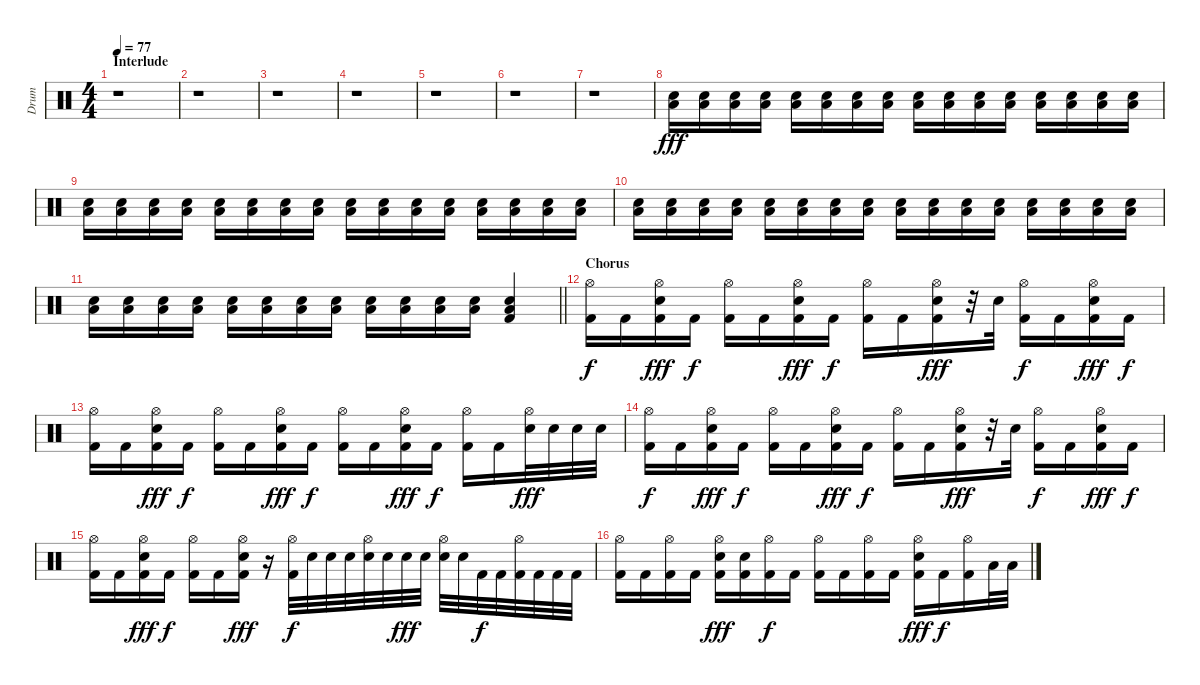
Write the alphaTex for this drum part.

\track ("Drum" "Drum") {instrument percussion}
\staff {score}
\articulation defaults
\ts (4 4)
\section ("" "Interlude")
\tempo 77
\clef neutral
\ks c
r.1{dy f} |
r.1 |
r.1 |
r.1 |
r.1 |
r.1 |
r.1{volume 0} |
("Low Tom (hit)" "Electric Snare (hit)").16{dy fff volume 10} ("Low Tom (hit)" "Electric Snare (hit)").16 ("Low Tom (hit)" "Electric Snare (hit)").16 ("Low Tom (hit)" "Electric Snare (hit)").16 ("Low Tom (hit)" "Electric Snare (hit)").16 ("Low Tom (hit)" "Electric Snare (hit)").16 ("Low Tom (hit)" "Electric Snare (hit)").16 ("Low Tom (hit)" "Electric Snare (hit)").16 ("Low Tom (hit)" "Electric Snare (hit)").16 ("Low Tom (hit)" "Electric Snare (hit)").16 ("Low Tom (hit)" "Electric Snare (hit)").16 ("Low Tom (hit)" "Electric Snare (hit)").16 ("Low Tom (hit)" "Electric Snare (hit)").16 ("Low Tom (hit)" "Electric Snare (hit)").16 ("Low Tom (hit)" "Electric Snare (hit)").16 ("Low Tom (hit)" "Electric Snare (hit)").16 |
("Low Tom (hit)" "Electric Snare (hit)").16 ("Low Tom (hit)" "Electric Snare (hit)").16 ("Low Tom (hit)" "Electric Snare (hit)").16 ("Low Tom (hit)" "Electric Snare (hit)").16 ("Low Tom (hit)" "Electric Snare (hit)").16 ("Low Tom (hit)" "Electric Snare (hit)").16 ("Low Tom (hit)" "Electric Snare (hit)").16 ("Low Tom (hit)" "Electric Snare (hit)").16 ("Low Tom (hit)" "Electric Snare (hit)").16 ("Low Tom (hit)" "Electric Snare (hit)").16 ("Low Tom (hit)" "Electric Snare (hit)").16 ("Low Tom (hit)" "Electric Snare (hit)").16 ("Low Tom (hit)" "Electric Snare (hit)").16 ("Low Tom (hit)" "Electric Snare (hit)").16 ("Low Tom (hit)" "Electric Snare (hit)").16 ("Low Tom (hit)" "Electric Snare (hit)").16 |
("Low Tom (hit)" "Electric Snare (hit)").16 ("Low Tom (hit)" "Electric Snare (hit)").16 ("Low Tom (hit)" "Electric Snare (hit)").16 ("Low Tom (hit)" "Electric Snare (hit)").16 ("Low Tom (hit)" "Electric Snare (hit)").16 ("Low Tom (hit)" "Electric Snare (hit)").16 ("Low Tom (hit)" "Electric Snare (hit)").16 ("Low Tom (hit)" "Electric Snare (hit)").16 ("Low Tom (hit)" "Electric Snare (hit)").16 ("Low Tom (hit)" "Electric Snare (hit)").16 ("Low Tom (hit)" "Electric Snare (hit)").16 ("Low Tom (hit)" "Electric Snare (hit)").16 ("Low Tom (hit)" "Electric Snare (hit)").16 ("Low Tom (hit)" "Electric Snare (hit)").16 ("Low Tom (hit)" "Electric Snare (hit)").16 ("Low Tom (hit)" "Electric Snare (hit)").16 |
\barLineRight lightlight
("Low Tom (hit)" "Electric Snare (hit)").16 ("Low Tom (hit)" "Electric Snare (hit)").16 ("Low Tom (hit)" "Electric Snare (hit)").16 ("Low Tom (hit)" "Electric Snare (hit)").16 ("Low Tom (hit)" "Electric Snare (hit)").16 ("Low Tom (hit)" "Electric Snare (hit)").16 ("Low Tom (hit)" "Electric Snare (hit)").16 ("Low Tom (hit)" "Electric Snare (hit)").16 ("Low Tom (hit)" "Electric Snare (hit)").16 ("Low Tom (hit)" "Electric Snare (hit)").16 ("Low Tom (hit)" "Electric Snare (hit)").16 ("Low Tom (hit)" "Electric Snare (hit)").16 ("Low Tom (hit)" "Electric Snare (hit)" "Kick (hit) 2").4 |
\section ("" "Chorus")
("Hi-Hat (open)" "Kick (hit) 2").16{dy f volume 14} "Kick (hit) 2".16 ("Hi-Hat (open)" "Electric Snare (hit)" "Kick (hit) 2").16{dy fff} "Kick (hit) 2".16{dy f} ("Hi-Hat (open)" "Kick (hit) 2").16 "Kick (hit) 2".16 ("Hi-Hat (open)" "Electric Snare (hit)" "Kick (hit) 2").16{dy fff} "Kick (hit) 2".16{dy f} ("Hi-Hat (open)" "Kick (hit) 2").16 "Kick (hit) 2".16 ("Hi-Hat (open)" "Electric Snare (hit)" "Kick (hit) 2").16{dy fff} r.32 "Electric Snare (hit)".32 ("Hi-Hat (open)" "Kick (hit) 2").16{dy f} "Kick (hit) 2".16 ("Hi-Hat (open)" "Electric Snare (hit)" "Kick (hit) 2").16{dy fff} "Kick (hit) 2".16{dy f} |
("Hi-Hat (open)" "Kick (hit) 2").16 "Kick (hit) 2".16 ("Hi-Hat (open)" "Electric Snare (hit)" "Kick (hit) 2").16{dy fff} "Kick (hit) 2".16{dy f} ("Hi-Hat (open)" "Kick (hit) 2").16 "Kick (hit) 2".16 ("Hi-Hat (open)" "Electric Snare (hit)" "Kick (hit) 2").16{dy fff} "Kick (hit) 2".16{dy f} ("Hi-Hat (open)" "Kick (hit) 2").16 "Kick (hit) 2".16 ("Hi-Hat (open)" "Electric Snare (hit)" "Kick (hit) 2").16{dy fff} "Kick (hit) 2".16{dy f} ("Hi-Hat (open)" "Kick (hit) 2").16 "Kick (hit) 2".16 ("Hi-Hat (open)" "Electric Snare (hit)").32{dy fff} "Electric Snare (hit)".32 "Electric Snare (hit)".32 "Electric Snare (hit)".32 |
("Hi-Hat (open)" "Kick (hit) 2").16{dy f} "Kick (hit) 2".16 ("Hi-Hat (open)" "Electric Snare (hit)" "Kick (hit) 2").16{dy fff} "Kick (hit) 2".16{dy f} ("Hi-Hat (open)" "Kick (hit) 2").16 "Kick (hit) 2".16 ("Hi-Hat (open)" "Electric Snare (hit)" "Kick (hit) 2").16{dy fff} "Kick (hit) 2".16{dy f} ("Hi-Hat (open)" "Kick (hit) 2").16 "Kick (hit) 2".16 ("Hi-Hat (open)" "Electric Snare (hit)" "Kick (hit) 2").16{dy fff} r.32 "Electric Snare (hit)".32 ("Hi-Hat (open)" "Kick (hit) 2").16{dy f} "Kick (hit) 2".16 ("Hi-Hat (open)" "Electric Snare (hit)" "Kick (hit) 2").16{dy fff} "Kick (hit) 2".16{dy f} |
("Hi-Hat (open)" "Kick (hit) 2").16 "Kick (hit) 2".16 ("Hi-Hat (open)" "Electric Snare (hit)" "Kick (hit) 2").16{dy fff} "Kick (hit) 2".16{dy f} ("Hi-Hat (open)" "Kick (hit) 2").16 "Kick (hit) 2".16 ("Hi-Hat (open)" "Electric Snare (hit)" "Kick (hit) 2").16{dy fff} r.16 ("Hi-Hat (open)" "Kick (hit) 2").32{dy f} "Electric Snare (hit)".32 "Electric Snare (hit)".32 "Electric Snare (hit)".32 ("Hi-Hat (open)" "Electric Snare (hit)").32 "Electric Snare (hit)".32 "Electric Snare (hit)".32{dy fff} "Electric Snare (hit)".32 ("Hi-Hat (open)" "Electric Snare (hit)").32 "Electric Snare (hit)".32 "Kick (hit) 2".32{dy f} "Kick (hit) 2".32 ("Hi-Hat (open)" "Kick (hit) 2").32 "Kick (hit) 2".32 "Kick (hit) 2".32 "Kick (hit) 2".32 |
("Hi-Hat (open)" "Kick (hit) 2").16 "Kick (hit) 2".16 ("Hi-Hat (open)" "Kick (hit) 2").16 "Kick (hit) 2".16 ("Hi-Hat (open)" "Electric Snare (hit)" "Kick (hit) 2").16{dy fff} ("Electric Snare (hit)" "Kick (hit) 2").16 ("Hi-Hat (open)" "Kick (hit) 2").16{dy f} "Kick (hit) 2".16 ("Hi-Hat (open)" "Kick (hit) 2").16 "Kick (hit) 2".16 ("Hi-Hat (open)" "Kick (hit) 2").16 "Kick (hit) 2".16 ("Hi-Hat (open)" "Electric Snare (hit)" "Kick (hit) 2").16{dy fff} "Kick (hit) 2".16{dy f} ("Hi-Hat (open)" "Kick (hit) 2").16 "Low Tom (hit)".32 "Low Floor Tom (hit)".32
